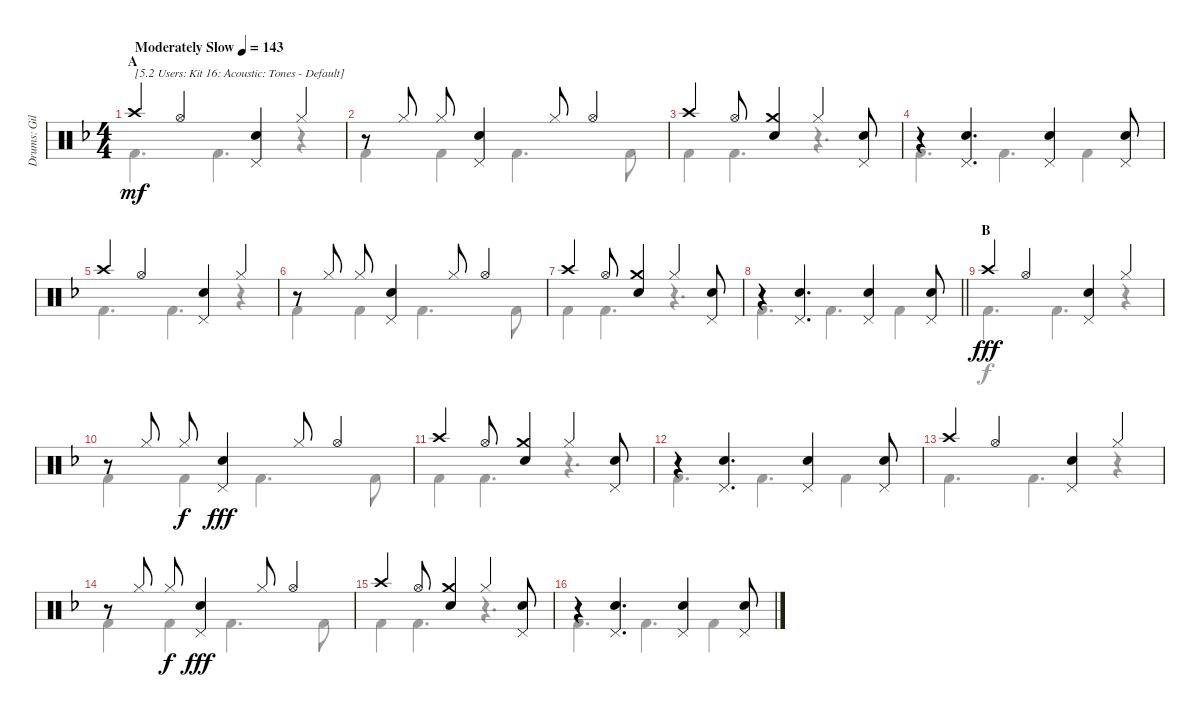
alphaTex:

\track ("Drums: Gil" "Drums: Gil") {instrument percussion}
\staff {score}
\articulation defaults
\voice
\ts (4 4)
\section ("" "A")
\tempo (143 "Moderately Slow")
\tempo 140
\tempo (143 "Moderately Slow")
\clef neutral
\ks f "Crash high (hit)".4{txt "[5.2 Users: Kit 16: Acoustic: Tones - Default]" dy mf} "Hi-Hat (open)".4
("Pedal Hi-Hat (hit)" "Snare (hit) 2").4 "Hi-Hat (closed)".4 |
r.8 "Hi-Hat (closed)".8 "Hi-Hat (closed)".8 ("Pedal Hi-Hat (hit)" "Snare (hit) 2").4 "Hi-Hat (closed)".8 "Hi-Hat (open)".4 |
"Crash high (hit)".4 "Hi-Hat (open)".8 ("Crash medium (hit)" "Snare (hit) 2").4 "Hi-Hat (closed)".4 ("Pedal Hi-Hat (hit)" "Snare (hit) 2").8 |
r.4 ("Pedal Hi-Hat (hit)" "Snare (hit) 2").4{d} ("Pedal Hi-Hat (hit)" "Snare (hit) 2").4 ("Pedal Hi-Hat (hit)" "Snare (hit) 2").8 |
"Crash high (hit)".4 "Hi-Hat (open)".4 ("Pedal Hi-Hat (hit)" "Snare (hit) 2").4 "Hi-Hat (closed)".4 |
r.8 "Hi-Hat (closed)".8 "Hi-Hat (closed)".8 ("Pedal Hi-Hat (hit)" "Snare (hit) 2").4 "Hi-Hat (closed)".8 "Hi-Hat (open)".4 |
"Crash high (hit)".4 "Hi-Hat (open)".8 ("Crash medium (hit)" "Snare (hit) 2").4 "Hi-Hat (closed)".4 ("Pedal Hi-Hat (hit)" "Snare (hit) 2").8 |
\barLineRight lightlight
r.4 ("Pedal Hi-Hat (hit)" "Snare (hit) 2").4{d} ("Pedal Hi-Hat (hit)" "Snare (hit) 2").4 ("Pedal Hi-Hat (hit)" "Snare (hit) 2").8 |
\section ("" "B")
"Crash high (hit)".4{dy fff} "Hi-Hat (open)".4 ("Pedal Hi-Hat (hit)" "Snare (hit) 2").4 "Hi-Hat (closed)".4 |
r.8 "Hi-Hat (closed)".8 "Hi-Hat (closed)".8{dy f} ("Pedal Hi-Hat (hit)" "Snare (hit) 2").4{dy fff} "Hi-Hat (closed)".8 "Hi-Hat (open)".4 |
"Crash high (hit)".4 "Hi-Hat (open)".8 ("Crash medium (hit)" "Snare (hit) 2").4 "Hi-Hat (closed)".4 ("Pedal Hi-Hat (hit)" "Snare (hit) 2").8 |
r.4 ("Pedal Hi-Hat (hit)" "Snare (hit) 2").4{d} ("Pedal Hi-Hat (hit)" "Snare (hit) 2").4 ("Pedal Hi-Hat (hit)" "Snare (hit) 2").8 |
"Crash high (hit)".4 "Hi-Hat (open)".4 ("Pedal Hi-Hat (hit)" "Snare (hit) 2").4 "Hi-Hat (closed)".4 |
r.8 "Hi-Hat (closed)".8 "Hi-Hat (closed)".8{dy f} ("Pedal Hi-Hat (hit)" "Snare (hit) 2").4{dy fff} "Hi-Hat (closed)".8 "Hi-Hat (open)".4 |
"Crash high (hit)".4 "Hi-Hat (open)".8 ("Crash medium (hit)" "Snare (hit) 2").4 "Hi-Hat (closed)".4 ("Pedal Hi-Hat (hit)" "Snare (hit) 2").8 |
r.4 ("Pedal Hi-Hat (hit)" "Snare (hit) 2").4{d} ("Pedal Hi-Hat (hit)" "Snare (hit) 2").4 ("Pedal Hi-Hat (hit)" "Snare (hit) 2").8
\voice
\clef neutral
\ottava regular
\simile none
\ks f "Kick (hit) 2".4{d dy mf} "Kick (hit) 2".4{d}
r.4 |
"Kick (hit) 2".4 "Kick (hit) 2".4 "Kick (hit) 2".4{d} "Kick (hit) 2".8 |
"Kick (hit) 2".4 "Kick (hit) 2".4{d} r.4{d} |
"Kick (hit) 2".4{d} "Kick (hit) 2".4{d} "Kick (hit) 2".4 |
"Kick (hit) 2".4{d} "Kick (hit) 2".4{d} r.4 |
"Kick (hit) 2".4 "Kick (hit) 2".4 "Kick (hit) 2".4{d} "Kick (hit) 2".8 |
"Kick (hit) 2".4 "Kick (hit) 2".4{d} r.4{d} |
\barLineRight lightlight "Kick (hit) 2".4{d} "Kick (hit) 2".4{d} "Kick (hit) 2".4
|
"Kick (hit) 2".4{d dy f} "Kick (hit) 2".4{d} r.4 |
"Kick (hit) 2".4 "Kick (hit) 2".4 "Kick (hit) 2".4{d} "Kick (hit) 2".8 |
"Kick (hit) 2".4 "Kick (hit) 2".4{d} r.4{d} |
"Kick (hit) 2".4{d} "Kick (hit) 2".4{d} "Kick (hit) 2".4 |
"Kick (hit) 2".4{d} "Kick (hit) 2".4{d} r.4 |
"Kick (hit) 2".4 "Kick (hit) 2".4 "Kick (hit) 2".4{d} "Kick (hit) 2".8 |
"Kick (hit) 2".4 "Kick (hit) 2".4{d} r.4{d} |
"Kick (hit) 2".4{d} "Kick (hit) 2".4{d} "Kick (hit) 2".4
